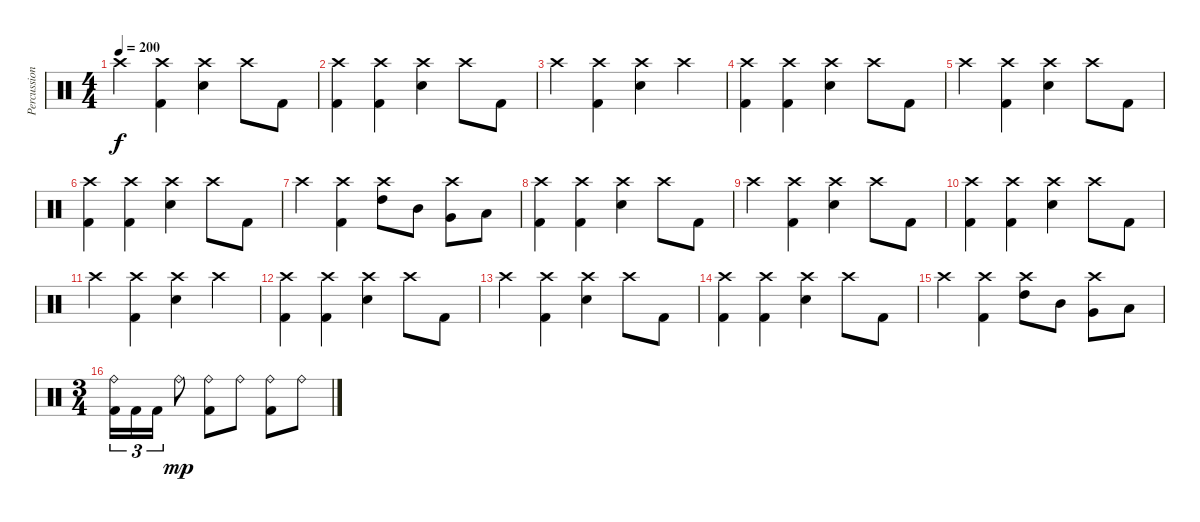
\track ("Percussion" "Percussion") {instrument percussion}
\staff {score}
\articulation defaults
\ts (4 4)
\tempo 200
\clef neutral
\ks c "Crash high (hit)".4{dy f}
("Crash high (hit)" "Kick (hit) 2").4 ("Crash high (hit)" "Electric Snare (hit)").4 "Crash high (hit)".8 "Kick (hit) 2".8 |
("Crash high (hit)" "Kick (hit) 2").4 ("Crash high (hit)" "Kick (hit) 2").4 ("Crash high (hit)" "Electric Snare (hit)").4 "Crash high (hit)".8 "Kick (hit) 2".8 |
"Crash high (hit)".4 ("Crash high (hit)" "Kick (hit) 2").4 ("Crash high (hit)" "Electric Snare (hit)").4 "Crash high (hit)".4 |
("Crash high (hit)" "Kick (hit) 2").4 ("Crash high (hit)" "Kick (hit) 2").4 ("Crash high (hit)" "Electric Snare (hit)").4 "Crash high (hit)".8 "Kick (hit) 2".8 |
"Crash high (hit)".4 ("Crash high (hit)" "Kick (hit) 2").4 ("Crash high (hit)" "Electric Snare (hit)").4 "Crash high (hit)".8 "Kick (hit) 2".8 |
("Crash high (hit)" "Kick (hit) 2").4 ("Crash high (hit)" "Kick (hit) 2").4 ("Crash high (hit)" "Electric Snare (hit)").4 "Crash high (hit)".8 "Kick (hit) 2".8 |
"Crash high (hit)".4 ("Crash high (hit)" "Kick (hit) 2").4 ("Crash high (hit)" "High Tom (hit)").8 "Mid Tom (hit)".8 ("Crash high (hit)" "Very Low Tom (hit)").8 "Low Floor Tom (hit)".8 |
("Crash high (hit)" "Kick (hit) 2").4 ("Crash high (hit)" "Kick (hit) 2").4 ("Crash high (hit)" "Electric Snare (hit)").4 "Crash high (hit)".8 "Kick (hit) 2".8 |
"Crash high (hit)".4 ("Crash high (hit)" "Kick (hit) 2").4 ("Crash high (hit)" "Electric Snare (hit)").4 "Crash high (hit)".8 "Kick (hit) 2".8 |
("Crash high (hit)" "Kick (hit) 2").4 ("Crash high (hit)" "Kick (hit) 2").4 ("Crash high (hit)" "Electric Snare (hit)").4 "Crash high (hit)".8 "Kick (hit) 2".8 |
"Crash high (hit)".4 ("Crash high (hit)" "Kick (hit) 2").4 ("Crash high (hit)" "Electric Snare (hit)").4 "Crash high (hit)".4 |
("Crash high (hit)" "Kick (hit) 2").4 ("Crash high (hit)" "Kick (hit) 2").4 ("Crash high (hit)" "Electric Snare (hit)").4 "Crash high (hit)".8 "Kick (hit) 2".8 |
"Crash high (hit)".4 ("Crash high (hit)" "Kick (hit) 2").4 ("Crash high (hit)" "Electric Snare (hit)").4 "Crash high (hit)".8 "Kick (hit) 2".8 |
("Crash high (hit)" "Kick (hit) 2").4 ("Crash high (hit)" "Kick (hit) 2").4 ("Crash high (hit)" "Electric Snare (hit)").4 "Crash high (hit)".8 "Kick (hit) 2".8 |
"Crash high (hit)".4 ("Crash high (hit)" "Kick (hit) 2").4 ("Crash high (hit)" "High Tom (hit)").8 "Mid Tom (hit)".8 ("Crash high (hit)" "Very Low Tom (hit)").8 "Low Floor Tom (hit)".8 |
\ts (3 4)
("Ride (bell)" "Kick (hit) 2").16{tu (3 2)} "Kick (hit) 2".16{tu (3 2)} "Kick (hit) 2".16{tu (3 2)} "Ride (bell)".8{dy mp} ("Ride (bell)" "Kick (hit) 2").8 "Ride (bell)".8 ("Ride (bell)" "Kick (hit) 2").8 "Ride (bell)".8
